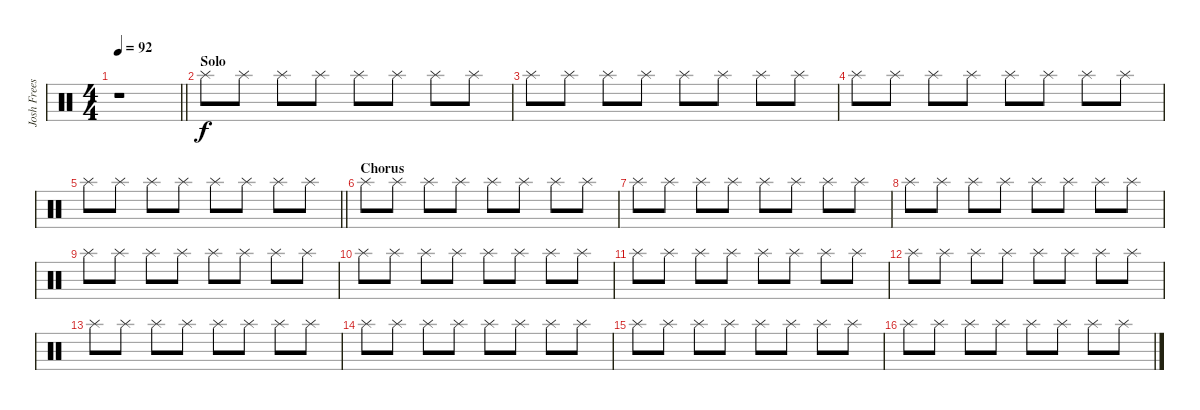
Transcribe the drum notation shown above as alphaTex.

\track ("Josh Freese (Studio Drummer)" "Josh Frees") {instrument percussion}
\staff {score}
\articulation defaults
\ts (4 4)
\tempo 92
\clef neutral
\barLineRight lightlight
\ks c
r.1{dy f} |
\section ("" "Solo")
"Splash (hit)".8 "Splash (hit)".8 "Splash (hit)".8 "Splash (hit)".8 "Splash (hit)".8 "Splash (hit)".8 "Splash (hit)".8 "Splash (hit)".8 |
"Splash (hit)".8 "Splash (hit)".8 "Splash (hit)".8 "Splash (hit)".8 "Splash (hit)".8 "Splash (hit)".8 "Splash (hit)".8 "Splash (hit)".8 |
"Splash (hit)".8 "Splash (hit)".8 "Splash (hit)".8 "Splash (hit)".8 "Splash (hit)".8 "Splash (hit)".8 "Splash (hit)".8 "Splash (hit)".8 |
\barLineRight lightlight "Splash (hit)".8 "Splash (hit)".8 "Splash (hit)".8 "Splash (hit)".8 "Splash (hit)".8 "Splash (hit)".8 "Splash (hit)".8 "Splash (hit)".8
|
\section ("" "Chorus")
"Splash (hit)".8 "Splash (hit)".8 "Splash (hit)".8 "Splash (hit)".8 "Splash (hit)".8 "Splash (hit)".8 "Splash (hit)".8 "Splash (hit)".8 |
"Splash (hit)".8 "Splash (hit)".8 "Splash (hit)".8 "Splash (hit)".8 "Splash (hit)".8 "Splash (hit)".8 "Splash (hit)".8 "Splash (hit)".8 |
"Splash (hit)".8 "Splash (hit)".8 "Splash (hit)".8 "Splash (hit)".8 "Splash (hit)".8 "Splash (hit)".8 "Splash (hit)".8 "Splash (hit)".8 |
"Splash (hit)".8 "Splash (hit)".8 "Splash (hit)".8 "Splash (hit)".8 "Splash (hit)".8 "Splash (hit)".8 "Splash (hit)".8 "Splash (hit)".8 |
"Splash (hit)".8 "Splash (hit)".8 "Splash (hit)".8 "Splash (hit)".8 "Splash (hit)".8 "Splash (hit)".8 "Splash (hit)".8 "Splash (hit)".8 |
"Splash (hit)".8 "Splash (hit)".8 "Splash (hit)".8 "Splash (hit)".8 "Splash (hit)".8 "Splash (hit)".8 "Splash (hit)".8 "Splash (hit)".8 |
"Splash (hit)".8 "Splash (hit)".8 "Splash (hit)".8 "Splash (hit)".8 "Splash (hit)".8 "Splash (hit)".8 "Splash (hit)".8 "Splash (hit)".8 |
"Splash (hit)".8 "Splash (hit)".8 "Splash (hit)".8 "Splash (hit)".8 "Splash (hit)".8 "Splash (hit)".8 "Splash (hit)".8 "Splash (hit)".8 |
"Splash (hit)".8 "Splash (hit)".8 "Splash (hit)".8 "Splash (hit)".8 "Splash (hit)".8 "Splash (hit)".8 "Splash (hit)".8 "Splash (hit)".8 |
"Splash (hit)".8 "Splash (hit)".8 "Splash (hit)".8 "Splash (hit)".8 "Splash (hit)".8 "Splash (hit)".8 "Splash (hit)".8 "Splash (hit)".8 |
"Splash (hit)".8 "Splash (hit)".8 "Splash (hit)".8 "Splash (hit)".8 "Splash (hit)".8 "Splash (hit)".8 "Splash (hit)".8 "Splash (hit)".8
